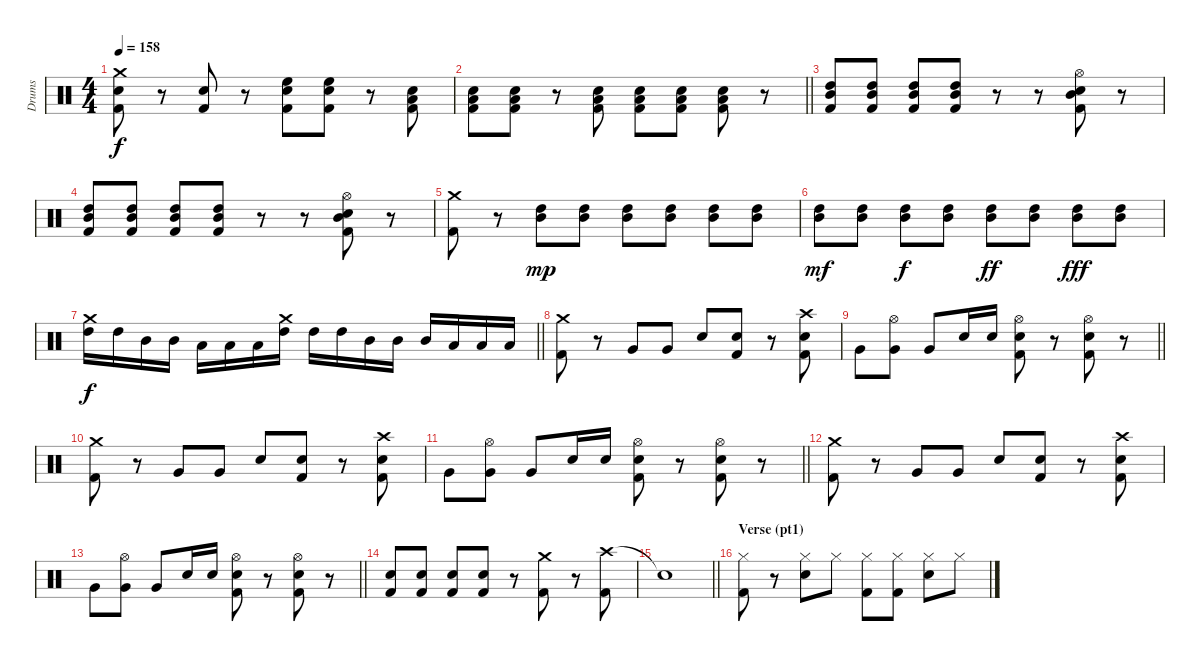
\track ("Drums" "Drums") {instrument percussion}
\staff
\articulation defaults
\ts (4 4)
\tempo 158
\clef neutral
\ks c
("Crash medium (hit)" "Electric Snare (hit)" "Kick (hit) 2").8{dy f} r.8 ("Electric Snare (hit)" "Kick (hit) 2").8 r.8 ("High Floor Tom (hit)" "Electric Snare (hit)" "Kick (hit) 2").8 ("High Floor Tom (hit)" "Electric Snare (hit)" "Kick (hit) 2").8 r.8 ("Low Tom (hit)" "Electric Snare (hit)" "Kick (hit) 2").8 |
\barLineRight lightlight
("Low Tom (hit)" "Electric Snare (hit)" "Kick (hit) 2").8 ("Low Tom (hit)" "Electric Snare (hit)" "Kick (hit) 2").8 r.8 ("Low Tom (hit)" "Electric Snare (hit)" "Kick (hit) 2").8 ("Low Tom (hit)" "Electric Snare (hit)" "Kick (hit) 2").8 ("Low Tom (hit)" "Electric Snare (hit)" "Kick (hit) 2").8 ("Low Tom (hit)" "Electric Snare (hit)" "Kick (hit) 2").8 r.8 |
("High Tom (hit)" "Mid Tom (hit)" "Kick (hit) 2").8 ("High Tom (hit)" "Mid Tom (hit)" "Kick (hit) 2").8 ("High Tom (hit)" "Mid Tom (hit)" "Kick (hit) 2").8 ("High Tom (hit)" "Mid Tom (hit)" "Kick (hit) 2").8 r.8 r.8 ("Hi-Hat (open)" "Electric Snare (hit)" "Mid Tom (hit)" "Kick (hit) 2").8 r.8 |
("High Tom (hit)" "Mid Tom (hit)" "Kick (hit) 2").8 ("High Tom (hit)" "Mid Tom (hit)" "Kick (hit) 2").8 ("High Tom (hit)" "Mid Tom (hit)" "Kick (hit) 2").8 ("High Tom (hit)" "Mid Tom (hit)" "Kick (hit) 2").8 r.8 r.8 ("Hi-Hat (open)" "Electric Snare (hit)" "Mid Tom (hit)" "Kick (hit) 2").8 r.8 |
("Crash medium (hit)" "Kick (hit) 2").8 r.8 ("High Tom (hit)" "Mid Tom (hit)").8{dy mp} ("High Tom (hit)" "Mid Tom (hit)").8 ("High Tom (hit)" "Mid Tom (hit)").8 ("High Tom (hit)" "Mid Tom (hit)").8 ("High Tom (hit)" "Mid Tom (hit)").8 ("High Tom (hit)" "Mid Tom (hit)").8 |
("High Tom (hit)" "Mid Tom (hit)").8{dy mf} ("High Tom (hit)" "Mid Tom (hit)").8 ("High Tom (hit)" "Mid Tom (hit)").8{dy f} ("High Tom (hit)" "Mid Tom (hit)").8 ("High Tom (hit)" "Mid Tom (hit)").8{dy ff} ("High Tom (hit)" "Mid Tom (hit)").8 ("High Tom (hit)" "Mid Tom (hit)").8{dy fff} ("High Tom (hit)" "Mid Tom (hit)").8 |
\barLineRight lightlight
("Crash medium (hit)" "High Tom (hit)").16{dy f} "High Tom (hit)".16 "Mid Tom (hit)".16 "Mid Tom (hit)".16 "Low Tom (hit)".16 "Low Tom (hit)".16 "Low Tom (hit)".16 ("Crash medium (hit)" "High Tom (hit)").16 "High Tom (hit)".16 "High Tom (hit)".16 "Mid Tom (hit)".16 "Mid Tom (hit)".16 "Mid Tom (hit)".16 "Low Tom (hit)".16 "Low Tom (hit)".16 "Low Tom (hit)".16 |
("Crash medium (hit)" "Kick (hit) 2").8 r.8 "Very Low Tom (hit)".8 "Very Low Tom (hit)".8 "Electric Snare (hit)".8 ("Electric Snare (hit)" "Kick (hit) 2").8 r.8 ("Crash high (hit)" "Electric Snare (hit)" "Kick (hit) 2").8 |
\barLineRight lightlight "Very Low Tom (hit)".8
("Hi-Hat (open)" "Very Low Tom (hit)").8 "Very Low Tom (hit)".8 "Electric Snare (hit)".16 "Electric Snare (hit)".16 ("Hi-Hat (open)" "Electric Snare (hit)" "Kick (hit) 2").8 r.8 ("Hi-Hat (open)" "Electric Snare (hit)" "Kick (hit) 2").8 r.8 |
("Crash medium (hit)" "Kick (hit) 2").8 r.8 "Very Low Tom (hit)".8 "Very Low Tom (hit)".8 "Electric Snare (hit)".8 ("Electric Snare (hit)" "Kick (hit) 2").8 r.8 ("Crash high (hit)" "Electric Snare (hit)" "Kick (hit) 2").8 |
\barLineRight lightlight "Very Low Tom (hit)".8
("Hi-Hat (open)" "Very Low Tom (hit)").8 "Very Low Tom (hit)".8 "Electric Snare (hit)".16 "Electric Snare (hit)".16 ("Hi-Hat (open)" "Electric Snare (hit)" "Kick (hit) 2").8 r.8 ("Hi-Hat (open)" "Electric Snare (hit)" "Kick (hit) 2").8 r.8 |
("Crash medium (hit)" "Kick (hit) 2").8 r.8 "Very Low Tom (hit)".8 "Very Low Tom (hit)".8 "Electric Snare (hit)".8 ("Electric Snare (hit)" "Kick (hit) 2").8 r.8 ("Crash high (hit)" "Electric Snare (hit)" "Kick (hit) 2").8 |
\barLineRight lightlight "Very Low Tom (hit)".8
("Hi-Hat (open)" "Very Low Tom (hit)").8 "Very Low Tom (hit)".8 "Electric Snare (hit)".16 "Electric Snare (hit)".16 ("Hi-Hat (open)" "Electric Snare (hit)" "Kick (hit) 2").8 r.8 ("Hi-Hat (open)" "Electric Snare (hit)" "Kick (hit) 2").8 r.8 |
("Electric Snare (hit)" "Kick (hit) 2").8 ("Electric Snare (hit)" "Kick (hit) 2").8 ("Electric Snare (hit)" "Kick (hit) 2").8 ("Electric Snare (hit)" "Kick (hit) 2").8 r.8 ("Crash medium (hit)" "Kick (hit) 2").8 r.8 ("Crash high (hit)" "Kick (hit) 2").8 |
\barLineRight lightlight "Snare (hit)"{t}.1
|
\section ("" "Verse (pt1)")
("Hi-Hat (closed)" "Kick (hit) 2").8 r.8 ("Hi-Hat (closed)" "Electric Snare (hit)").8 "Hi-Hat (closed)".8 ("Hi-Hat (closed)" "Kick (hit) 2").8 ("Hi-Hat (closed)" "Kick (hit) 2").8 ("Hi-Hat (closed)" "Electric Snare (hit)").8 "Hi-Hat (closed)".8
